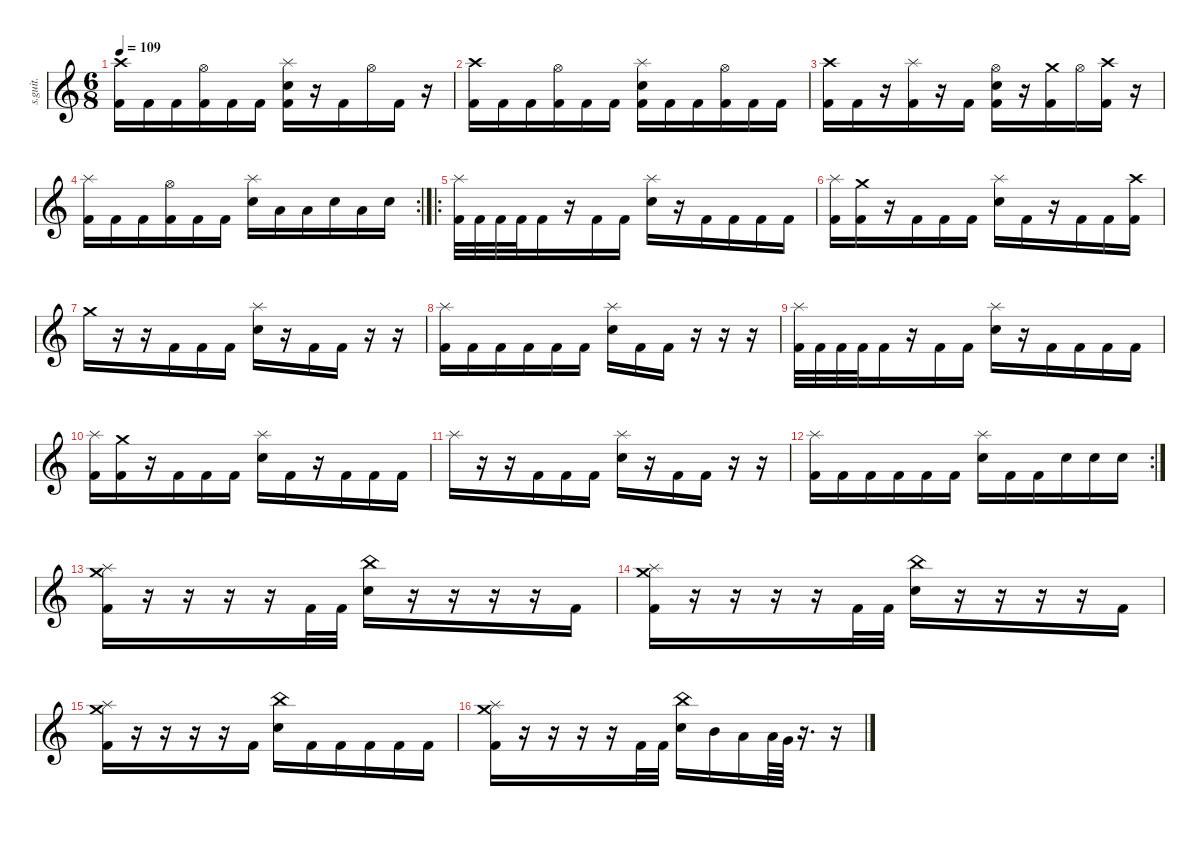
\defaultSystemsLayout 4
\hideDynamics
\bracketExtendMode nobrackets
\track ("Drumkit" "s.guit.") {instrument percussion}
\staff {score}
\articulation defaults
\ts (6 8)
\tempo 109
\clef g2
\ks c
("Crash high (hit)" "Kick (hit) 2").16{lyrics (0 "") lyrics (1 "") lyrics (2 "") lyrics (3 "") lyrics (4 "") dy f} "Kick (hit) 2".16{lyrics (0 "") lyrics (1 "") lyrics (2 "") lyrics (3 "") lyrics (4 "")} "Kick (hit) 2".16{lyrics (0 "") lyrics (1 "") lyrics (2 "") lyrics (3 "") lyrics (4 "")} ("Hi-Hat (open)" "Kick (hit) 2").16{lyrics (0 "") lyrics (1 "") lyrics (2 "") lyrics (3 "") lyrics (4 "")} "Kick (hit) 2".16{lyrics (0 "") lyrics (1 "") lyrics (2 "") lyrics (3 "") lyrics (4 "")} "Kick (hit) 2".16{lyrics (0 "") lyrics (1 "") lyrics (2 "") lyrics (3 "") lyrics (4 "")} ("Splash (hit)" "Electric Snare (hit)" "Kick (hit) 2").16{lyrics (0 "") lyrics (1 "") lyrics (2 "") lyrics (3 "") lyrics (4 "")} r.16 "Kick (hit) 2".16{lyrics (0 "") lyrics (1 "") lyrics (2 "") lyrics (3 "") lyrics (4 "")} "Hi-Hat (open)".16{lyrics (0 "") lyrics (1 "") lyrics (2 "") lyrics (3 "") lyrics (4 "")} "Kick (hit) 2".16{lyrics (0 "") lyrics (1 "") lyrics (2 "") lyrics (3 "") lyrics (4 "")} r.16 |
("Crash high (hit)" "Kick (hit) 2").16{lyrics (0 "") lyrics (1 "") lyrics (2 "") lyrics (3 "") lyrics (4 "")} "Kick (hit) 2".16{lyrics (0 "") lyrics (1 "") lyrics (2 "") lyrics (3 "") lyrics (4 "")} "Kick (hit) 2".16{lyrics (0 "") lyrics (1 "") lyrics (2 "") lyrics (3 "") lyrics (4 "")} ("Hi-Hat (open)" "Kick (hit) 2").16{lyrics (0 "") lyrics (1 "") lyrics (2 "") lyrics (3 "") lyrics (4 "")} "Kick (hit) 2".16{lyrics (0 "") lyrics (1 "") lyrics (2 "") lyrics (3 "") lyrics (4 "")} "Kick (hit) 2".16{lyrics (0 "") lyrics (1 "") lyrics (2 "") lyrics (3 "") lyrics (4 "")} ("Splash (hit)" "Electric Snare (hit)" "Kick (hit) 2").16{lyrics (0 "") lyrics (1 "") lyrics (2 "") lyrics (3 "") lyrics (4 "")} "Kick (hit) 2".16{lyrics (0 "") lyrics (1 "") lyrics (2 "") lyrics (3 "") lyrics (4 "")} "Kick (hit) 2".16{lyrics (0 "") lyrics (1 "") lyrics (2 "") lyrics (3 "") lyrics (4 "")} ("Hi-Hat (open)" "Kick (hit) 2").16{lyrics (0 "") lyrics (1 "") lyrics (2 "") lyrics (3 "") lyrics (4 "")} "Kick (hit) 2".16{lyrics (0 "") lyrics (1 "") lyrics (2 "") lyrics (3 "") lyrics (4 "")} "Kick (hit) 2".16{lyrics (0 "") lyrics (1 "") lyrics (2 "") lyrics (3 "") lyrics (4 "")} |
("Crash high (hit)" "Kick (hit) 2").16{lyrics (0 "") lyrics (1 "") lyrics (2 "") lyrics (3 "") lyrics (4 "")} "Kick (hit) 2".16{lyrics (0 "") lyrics (1 "") lyrics (2 "") lyrics (3 "") lyrics (4 "")} r.16 ("Splash (hit)" "Kick (hit) 2").16{lyrics (0 "") lyrics (1 "") lyrics (2 "") lyrics (3 "") lyrics (4 "")} r.16 "Kick (hit) 2".16{lyrics (0 "") lyrics (1 "") lyrics (2 "") lyrics (3 "") lyrics (4 "")} ("Hi-Hat (open)" "Electric Snare (hit)" "Kick (hit) 2").16{lyrics (0 "") lyrics (1 "") lyrics (2 "") lyrics (3 "") lyrics (4 "")} r.16 ("Crash medium (hit)" "Kick (hit) 2").16{lyrics (0 "") lyrics (1 "") lyrics (2 "") lyrics (3 "") lyrics (4 "")} "Hi-Hat (open)".16{lyrics (0 "") lyrics (1 "") lyrics (2 "") lyrics (3 "") lyrics (4 "")} ("Crash high (hit)" "Kick (hit) 2").16{lyrics (0 "") lyrics (1 "") lyrics (2 "") lyrics (3 "") lyrics (4 "")} r.16 |
\rc 2
("Splash (hit)" "Kick (hit) 2").16{lyrics (0 "") lyrics (1 "") lyrics (2 "") lyrics (3 "") lyrics (4 "")} "Kick (hit) 2".16{lyrics (0 "") lyrics (1 "") lyrics (2 "") lyrics (3 "") lyrics (4 "")} "Kick (hit) 2".16{lyrics (0 "") lyrics (1 "") lyrics (2 "") lyrics (3 "") lyrics (4 "")} ("Hi-Hat (open)" "Kick (hit) 2").16{lyrics (0 "") lyrics (1 "") lyrics (2 "") lyrics (3 "") lyrics (4 "")} "Kick (hit) 2".16{lyrics (0 "") lyrics (1 "") lyrics (2 "") lyrics (3 "") lyrics (4 "")} "Kick (hit) 2".16{lyrics (0 "") lyrics (1 "") lyrics (2 "") lyrics (3 "") lyrics (4 "")} ("Splash (hit)" "Electric Snare (hit)").16{lyrics (0 "") lyrics (1 "") lyrics (2 "") lyrics (3 "") lyrics (4 "")} "Low Tom (hit)".16{lyrics (0 "") lyrics (1 "") lyrics (2 "") lyrics (3 "") lyrics (4 "")} "Low Floor Tom (hit)".16{lyrics (0 "") lyrics (1 "") lyrics (2 "") lyrics (3 "") lyrics (4 "")} "Electric Snare (hit)".16{lyrics (0 "") lyrics (1 "") lyrics (2 "") lyrics (3 "") lyrics (4 "")} "Low Tom (hit)".16{lyrics (0 "") lyrics (1 "") lyrics (2 "") lyrics (3 "") lyrics (4 "")} "Electric Snare (hit)".16{lyrics (0 "") lyrics (1 "") lyrics (2 "") lyrics (3 "") lyrics (4 "")} |
\ro
("Splash (hit)" "Kick (hit) 2").32{lyrics (0 "") lyrics (1 "") lyrics (2 "") lyrics (3 "") lyrics (4 "")} "Kick (hit) 2".32{lyrics (0 "") lyrics (1 "") lyrics (2 "") lyrics (3 "") lyrics (4 "")} "Kick (hit) 2".32{lyrics (0 "") lyrics (1 "") lyrics (2 "") lyrics (3 "") lyrics (4 "")} "Kick (hit) 2".32{lyrics (0 "") lyrics (1 "") lyrics (2 "") lyrics (3 "") lyrics (4 "")} "Kick (hit) 2".16{lyrics (0 "") lyrics (1 "") lyrics (2 "") lyrics (3 "") lyrics (4 "")} r.16 "Kick (hit) 2".16{lyrics (0 "") lyrics (1 "") lyrics (2 "") lyrics (3 "") lyrics (4 "")} "Kick (hit) 2".16{lyrics (0 "") lyrics (1 "") lyrics (2 "") lyrics (3 "") lyrics (4 "")} ("Splash (hit)" "Electric Snare (hit)").16{lyrics (0 "") lyrics (1 "") lyrics (2 "") lyrics (3 "") lyrics (4 "")} r.16 "Kick (hit) 2".16{lyrics (0 "") lyrics (1 "") lyrics (2 "") lyrics (3 "") lyrics (4 "")} "Kick (hit) 2".16{lyrics (0 "") lyrics (1 "") lyrics (2 "") lyrics (3 "") lyrics (4 "")} "Kick (hit) 2".16{lyrics (0 "") lyrics (1 "") lyrics (2 "") lyrics (3 "") lyrics (4 "")} "Kick (hit) 2".16{lyrics (0 "") lyrics (1 "") lyrics (2 "") lyrics (3 "") lyrics (4 "")} |
("Splash (hit)" "Kick (hit) 2").16{lyrics (0 "") lyrics (1 "") lyrics (2 "") lyrics (3 "") lyrics (4 "")} ("Crash medium (hit)" "Kick (hit) 2").16{lyrics (0 "") lyrics (1 "") lyrics (2 "") lyrics (3 "") lyrics (4 "")} r.16 "Kick (hit) 2".16{lyrics (0 "") lyrics (1 "") lyrics (2 "") lyrics (3 "") lyrics (4 "")} "Kick (hit) 2".16{lyrics (0 "") lyrics (1 "") lyrics (2 "") lyrics (3 "") lyrics (4 "")} "Kick (hit) 2".16{lyrics (0 "") lyrics (1 "") lyrics (2 "") lyrics (3 "") lyrics (4 "")} ("Splash (hit)" "Electric Snare (hit)").16{lyrics (0 "") lyrics (1 "") lyrics (2 "") lyrics (3 "") lyrics (4 "")} "Kick (hit) 2".16{lyrics (0 "") lyrics (1 "") lyrics (2 "") lyrics (3 "") lyrics (4 "")} r.16 "Kick (hit) 2".16{lyrics (0 "") lyrics (1 "") lyrics (2 "") lyrics (3 "") lyrics (4 "")} "Kick (hit) 2".16{lyrics (0 "") lyrics (1 "") lyrics (2 "") lyrics (3 "") lyrics (4 "")} ("Crash high (hit)" "Kick (hit) 2").16{lyrics (0 "") lyrics (1 "") lyrics (2 "") lyrics (3 "") lyrics (4 "")} |
"Crash medium (hit)".16{lyrics (0 "") lyrics (1 "") lyrics (2 "") lyrics (3 "") lyrics (4 "")} r.16 r.16 "Kick (hit) 2".16{lyrics (0 "") lyrics (1 "") lyrics (2 "") lyrics (3 "") lyrics (4 "")} "Kick (hit) 2".16{lyrics (0 "") lyrics (1 "") lyrics (2 "") lyrics (3 "") lyrics (4 "")} "Kick (hit) 2".16{lyrics (0 "") lyrics (1 "") lyrics (2 "") lyrics (3 "") lyrics (4 "")} ("Splash (hit)" "Electric Snare (hit)").16{lyrics (0 "") lyrics (1 "") lyrics (2 "") lyrics (3 "") lyrics (4 "")} r.16 "Kick (hit) 2".16{lyrics (0 "") lyrics (1 "") lyrics (2 "") lyrics (3 "") lyrics (4 "")} "Kick (hit) 2".16{lyrics (0 "") lyrics (1 "") lyrics (2 "") lyrics (3 "") lyrics (4 "")} r.16 r.16 |
("Splash (hit)" "Kick (hit) 2").16{lyrics (0 "") lyrics (1 "") lyrics (2 "") lyrics (3 "") lyrics (4 "")} "Kick (hit) 2".16{lyrics (0 "") lyrics (1 "") lyrics (2 "") lyrics (3 "") lyrics (4 "")} "Kick (hit) 2".16{lyrics (0 "") lyrics (1 "") lyrics (2 "") lyrics (3 "") lyrics (4 "")} "Kick (hit) 2".16{lyrics (0 "") lyrics (1 "") lyrics (2 "") lyrics (3 "") lyrics (4 "")} "Kick (hit) 2".16{lyrics (0 "") lyrics (1 "") lyrics (2 "") lyrics (3 "") lyrics (4 "")} "Kick (hit) 2".16{lyrics (0 "") lyrics (1 "") lyrics (2 "") lyrics (3 "") lyrics (4 "")} ("Splash (hit)" "Electric Snare (hit)").16{lyrics (0 "") lyrics (1 "") lyrics (2 "") lyrics (3 "") lyrics (4 "")} "Kick (hit) 2".16{lyrics (0 "") lyrics (1 "") lyrics (2 "") lyrics (3 "") lyrics (4 "")} "Kick (hit) 2".16{lyrics (0 "") lyrics (1 "") lyrics (2 "") lyrics (3 "") lyrics (4 "")} r.16 r.16 r.16 |
("Splash (hit)" "Kick (hit) 2").32{lyrics (0 "") lyrics (1 "") lyrics (2 "") lyrics (3 "") lyrics (4 "")} "Kick (hit) 2".32{lyrics (0 "") lyrics (1 "") lyrics (2 "") lyrics (3 "") lyrics (4 "")} "Kick (hit) 2".32{lyrics (0 "") lyrics (1 "") lyrics (2 "") lyrics (3 "") lyrics (4 "")} "Kick (hit) 2".32{lyrics (0 "") lyrics (1 "") lyrics (2 "") lyrics (3 "") lyrics (4 "")} "Kick (hit) 2".16{lyrics (0 "") lyrics (1 "") lyrics (2 "") lyrics (3 "") lyrics (4 "")} r.16 "Kick (hit) 2".16{lyrics (0 "") lyrics (1 "") lyrics (2 "") lyrics (3 "") lyrics (4 "")} "Kick (hit) 2".16{lyrics (0 "") lyrics (1 "") lyrics (2 "") lyrics (3 "") lyrics (4 "")} ("Splash (hit)" "Electric Snare (hit)").16{lyrics (0 "") lyrics (1 "") lyrics (2 "") lyrics (3 "") lyrics (4 "")} r.16 "Kick (hit) 2".16{lyrics (0 "") lyrics (1 "") lyrics (2 "") lyrics (3 "") lyrics (4 "")} "Kick (hit) 2".16{lyrics (0 "") lyrics (1 "") lyrics (2 "") lyrics (3 "") lyrics (4 "")} "Kick (hit) 2".16{lyrics (0 "") lyrics (1 "") lyrics (2 "") lyrics (3 "") lyrics (4 "")} "Kick (hit) 2".16{lyrics (0 "") lyrics (1 "") lyrics (2 "") lyrics (3 "") lyrics (4 "")} |
("Splash (hit)" "Kick (hit) 2").16{lyrics (0 "") lyrics (1 "") lyrics (2 "") lyrics (3 "") lyrics (4 "")} ("Crash medium (hit)" "Kick (hit) 2").16{lyrics (0 "") lyrics (1 "") lyrics (2 "") lyrics (3 "") lyrics (4 "")} r.16 "Kick (hit) 2".16{lyrics (0 "") lyrics (1 "") lyrics (2 "") lyrics (3 "") lyrics (4 "")} "Kick (hit) 2".16{lyrics (0 "") lyrics (1 "") lyrics (2 "") lyrics (3 "") lyrics (4 "")} "Kick (hit) 2".16{lyrics (0 "") lyrics (1 "") lyrics (2 "") lyrics (3 "") lyrics (4 "")} ("Splash (hit)" "Electric Snare (hit)").16{lyrics (0 "") lyrics (1 "") lyrics (2 "") lyrics (3 "") lyrics (4 "")} "Kick (hit) 2".16{lyrics (0 "") lyrics (1 "") lyrics (2 "") lyrics (3 "") lyrics (4 "")} r.16 "Kick (hit) 2".16{lyrics (0 "") lyrics (1 "") lyrics (2 "") lyrics (3 "") lyrics (4 "")} "Kick (hit) 2".16{lyrics (0 "") lyrics (1 "") lyrics (2 "") lyrics (3 "") lyrics (4 "")} "Kick (hit) 2".16{lyrics (0 "") lyrics (1 "") lyrics (2 "") lyrics (3 "") lyrics (4 "")} |
"Splash (hit)".16{lyrics (0 "") lyrics (1 "") lyrics (2 "") lyrics (3 "") lyrics (4 "")} r.16 r.16 "Kick (hit) 2".16{lyrics (0 "") lyrics (1 "") lyrics (2 "") lyrics (3 "") lyrics (4 "")} "Kick (hit) 2".16{lyrics (0 "") lyrics (1 "") lyrics (2 "") lyrics (3 "") lyrics (4 "")} "Kick (hit) 2".16{lyrics (0 "") lyrics (1 "") lyrics (2 "") lyrics (3 "") lyrics (4 "")} ("Splash (hit)" "Electric Snare (hit)").16{lyrics (0 "") lyrics (1 "") lyrics (2 "") lyrics (3 "") lyrics (4 "")} r.16 "Kick (hit) 2".16{lyrics (0 "") lyrics (1 "") lyrics (2 "") lyrics (3 "") lyrics (4 "")} "Kick (hit) 2".16{lyrics (0 "") lyrics (1 "") lyrics (2 "") lyrics (3 "") lyrics (4 "")} r.16 r.16 |
\rc 2
("Splash (hit)" "Kick (hit) 2").16{lyrics (0 "") lyrics (1 "") lyrics (2 "") lyrics (3 "") lyrics (4 "")} "Kick (hit) 2".16{lyrics (0 "") lyrics (1 "") lyrics (2 "") lyrics (3 "") lyrics (4 "")} "Kick (hit) 2".16{lyrics (0 "") lyrics (1 "") lyrics (2 "") lyrics (3 "") lyrics (4 "")} "Kick (hit) 2".16{lyrics (0 "") lyrics (1 "") lyrics (2 "") lyrics (3 "") lyrics (4 "")} "Kick (hit) 2".16{lyrics (0 "") lyrics (1 "") lyrics (2 "") lyrics (3 "") lyrics (4 "")} "Kick (hit) 2".16{lyrics (0 "") lyrics (1 "") lyrics (2 "") lyrics (3 "") lyrics (4 "")} ("Splash (hit)" "Electric Snare (hit)").16{lyrics (0 "") lyrics (1 "") lyrics (2 "") lyrics (3 "") lyrics (4 "")} "Kick (hit) 2".16{lyrics (0 "") lyrics (1 "") lyrics (2 "") lyrics (3 "") lyrics (4 "")} "Kick (hit) 2".16{lyrics (0 "") lyrics (1 "") lyrics (2 "") lyrics (3 "") lyrics (4 "")} "Electric Snare (hit)".16{lyrics (0 "") lyrics (1 "") lyrics (2 "") lyrics (3 "") lyrics (4 "")} "Electric Snare (hit)".16{lyrics (0 "") lyrics (1 "") lyrics (2 "") lyrics (3 "") lyrics (4 "")} "Electric Snare (hit)".16{lyrics (0 "") lyrics (1 "") lyrics (2 "") lyrics (3 "") lyrics (4 "")} |
("Crash medium (hit)" "Splash (hit)" "Kick (hit) 2").16{lyrics (0 "") lyrics (1 "") lyrics (2 "") lyrics (3 "") lyrics (4 "")} r.16 r.16 r.16 r.16 "Kick (hit) 2".32{lyrics (0 "") lyrics (1 "") lyrics (2 "") lyrics (3 "") lyrics (4 "")} "Kick (hit) 2".32{lyrics (0 "") lyrics (1 "") lyrics (2 "") lyrics (3 "") lyrics (4 "")} ("China (hit)" "Electric Snare (hit)").16{lyrics (0 "") lyrics (1 "") lyrics (2 "") lyrics (3 "") lyrics (4 "")} r.16 r.16 r.16 r.16 "Kick (hit) 2".16{lyrics (0 "") lyrics (1 "") lyrics (2 "") lyrics (3 "") lyrics (4 "")} |
("Crash medium (hit)" "Splash (hit)" "Kick (hit) 2").16{lyrics (0 "") lyrics (1 "") lyrics (2 "") lyrics (3 "") lyrics (4 "")} r.16 r.16 r.16 r.16 "Kick (hit) 2".32{lyrics (0 "") lyrics (1 "") lyrics (2 "") lyrics (3 "") lyrics (4 "")} "Kick (hit) 2".32{lyrics (0 "") lyrics (1 "") lyrics (2 "") lyrics (3 "") lyrics (4 "")} ("China (hit)" "Electric Snare (hit)").16{lyrics (0 "") lyrics (1 "") lyrics (2 "") lyrics (3 "") lyrics (4 "")} r.16 r.16 r.16 r.16 "Kick (hit) 2".16{lyrics (0 "") lyrics (1 "") lyrics (2 "") lyrics (3 "") lyrics (4 "")} |
("Crash medium (hit)" "Splash (hit)" "Kick (hit) 2").16{lyrics (0 "") lyrics (1 "") lyrics (2 "") lyrics (3 "") lyrics (4 "")} r.16 r.16 r.16 r.16 "Kick (hit) 2".16{lyrics (0 "") lyrics (1 "") lyrics (2 "") lyrics (3 "") lyrics (4 "")} ("China (hit)" "Electric Snare (hit)").16{lyrics (0 "") lyrics (1 "") lyrics (2 "") lyrics (3 "") lyrics (4 "")} "Kick (hit) 2".16{lyrics (0 "") lyrics (1 "") lyrics (2 "") lyrics (3 "") lyrics (4 "")} "Kick (hit) 2".16{lyrics (0 "") lyrics (1 "") lyrics (2 "") lyrics (3 "") lyrics (4 "")} "Kick (hit) 2".16{lyrics (0 "") lyrics (1 "") lyrics (2 "") lyrics (3 "") lyrics (4 "")} "Kick (hit) 2".16{lyrics (0 "") lyrics (1 "") lyrics (2 "") lyrics (3 "") lyrics (4 "")} "Kick (hit) 2".16{lyrics (0 "") lyrics (1 "") lyrics (2 "") lyrics (3 "") lyrics (4 "")} |
("Crash medium (hit)" "Splash (hit)" "Kick (hit) 2").16{lyrics (0 "") lyrics (1 "") lyrics (2 "") lyrics (3 "") lyrics (4 "")} r.16 r.16 r.16 r.16 "Kick (hit) 2".32{lyrics (0 "") lyrics (1 "") lyrics (2 "") lyrics (3 "") lyrics (4 "")} "Kick (hit) 2".32{lyrics (0 "") lyrics (1 "") lyrics (2 "") lyrics (3 "") lyrics (4 "")} ("China (hit)" "Electric Snare (hit)").16{lyrics (0 "") lyrics (1 "") lyrics (2 "") lyrics (3 "") lyrics (4 "")} "Mid Tom (hit)".16{lyrics (0 "") lyrics (1 "") lyrics (2 "") lyrics (3 "") lyrics (4 "")} "Low Tom (hit)".16{lyrics (0 "") lyrics (1 "") lyrics (2 "") lyrics (3 "") lyrics (4 "")} "Low Floor Tom (hit)".64{lyrics (0 "") lyrics (1 "") lyrics (2 "") lyrics (3 "") lyrics (4 "")} "Very Low Tom (hit)".64{lyrics (0 "") lyrics (1 "") lyrics (2 "") lyrics (3 "") lyrics (4 "")} r.16{d} r.16
